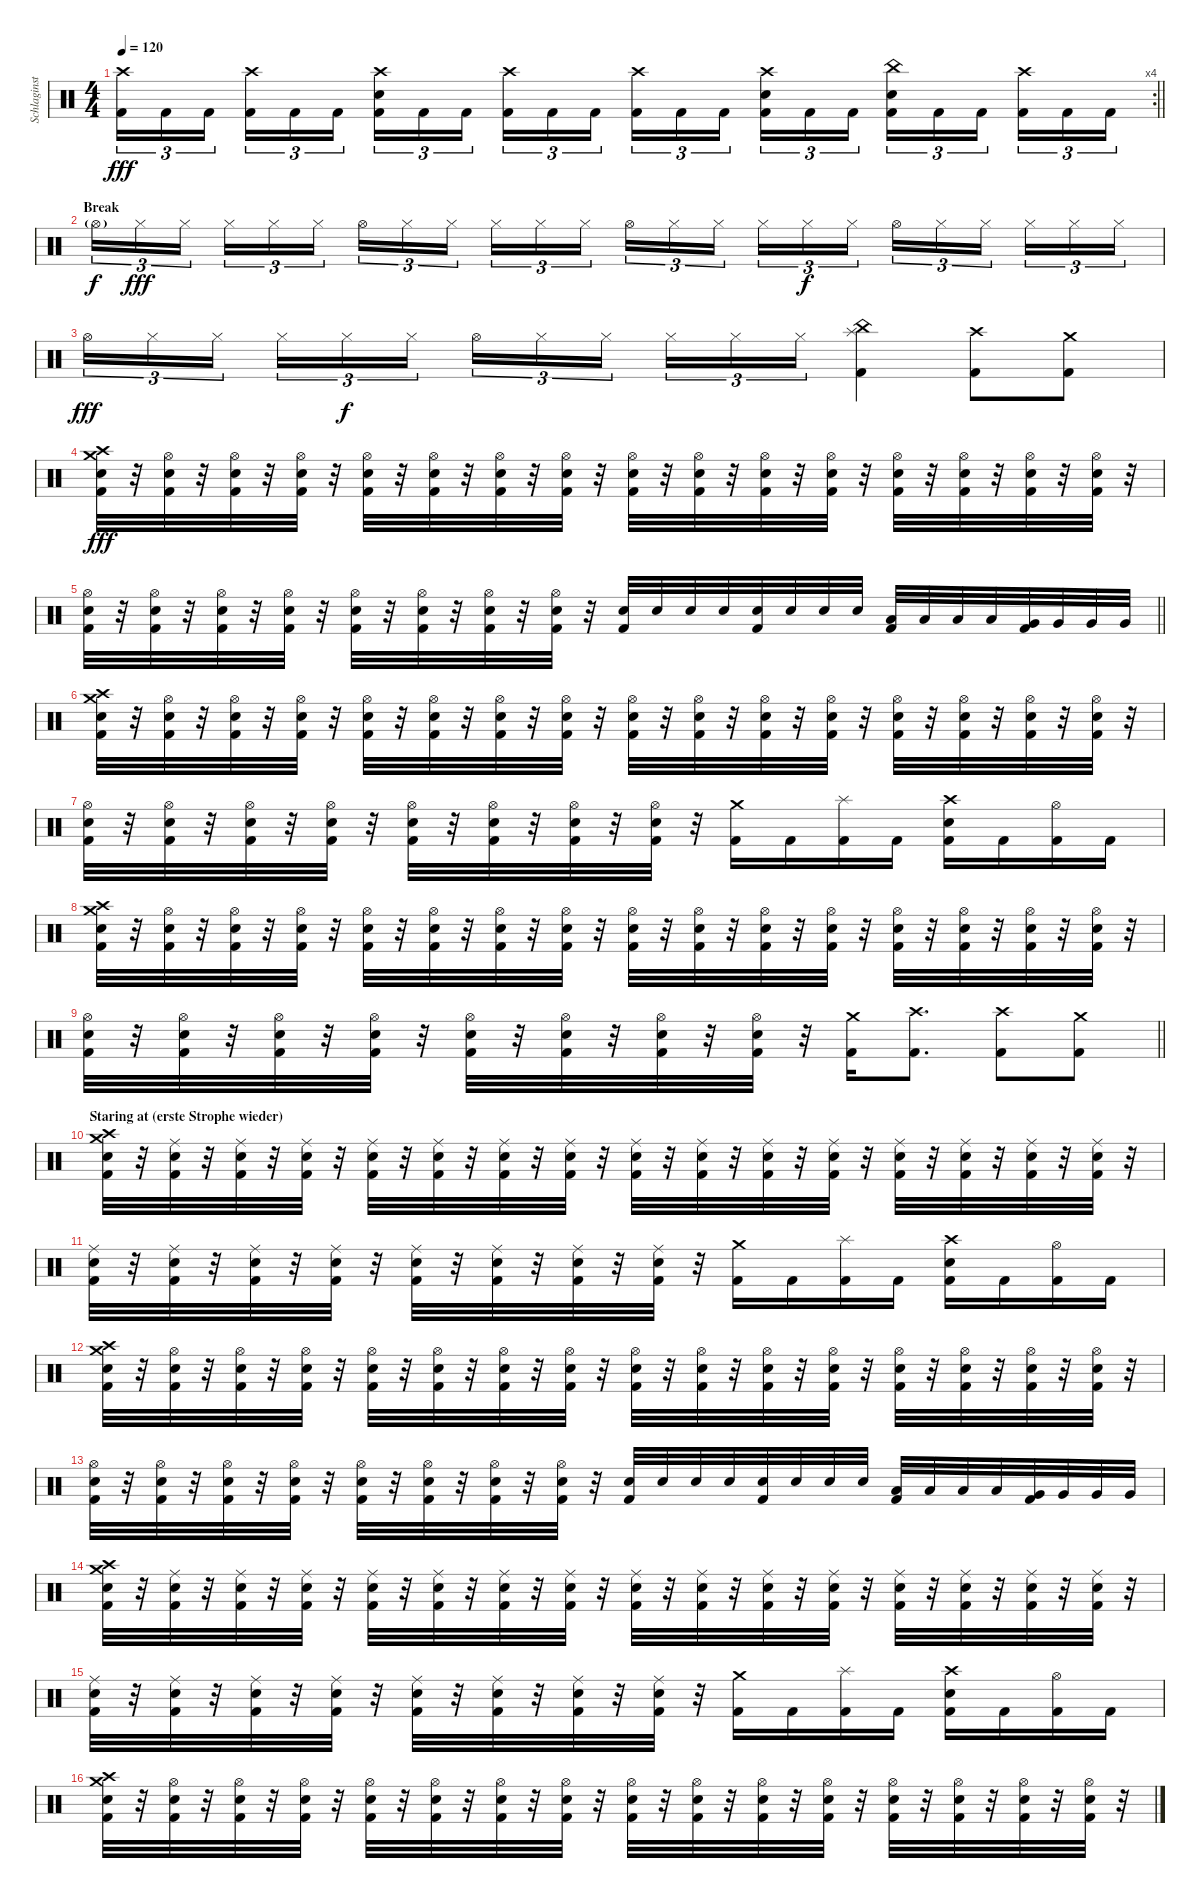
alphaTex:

\track ("Schlaginstrumente - Auswahl" "Schlaginst") {instrument percussion}
\staff {score}
\articulation defaults
\rc 4
\ts (4 4)
\tempo 120
\clef neutral
\barLineRight lightlight
\ks c
("Crash high (hit)" "Kick (hit) 2").16{tu (3 2) dy fff} "Kick (hit) 2".16{tu (3 2)} "Kick (hit) 2".16{tu (3 2) beam splitsecondary} ("Crash high (hit)" "Kick (hit) 2").16{tu (3 2)} "Kick (hit) 2".16{tu (3 2)} "Kick (hit) 2".16{tu (3 2)} ("Crash high (hit)" "Electric Snare (hit)" "Kick (hit) 2").16{tu (3 2)} "Kick (hit) 2".16{tu (3 2)} "Kick (hit) 2".16{tu (3 2) beam splitsecondary} ("Crash high (hit)" "Kick (hit) 2").16{tu (3 2)} "Kick (hit) 2".16{tu (3 2)} "Kick (hit) 2".16{tu (3 2)} ("Crash high (hit)" "Kick (hit) 2").16{tu (3 2)} "Kick (hit) 2".16{tu (3 2)} "Kick (hit) 2".16{tu (3 2) beam splitsecondary} ("Crash high (hit)" "Electric Snare (hit)" "Kick (hit) 2").16{tu (3 2)} "Kick (hit) 2".16{tu (3 2)} "Kick (hit) 2".16{tu (3 2)} ("China (hit)" "Electric Snare (hit)" "Kick (hit) 2").16{tu (3 2)} "Kick (hit) 2".16{tu (3 2)} "Kick (hit) 2".16{tu (3 2) beam splitsecondary} ("Crash high (hit)" "Kick (hit) 2").16{tu (3 2)} "Kick (hit) 2".16{tu (3 2)} "Kick (hit) 2".16{tu (3 2)} |
\section ("" "Break")
"Hi-Hat (open)"{g}.16{tu (3 2) dy f} "Hi-Hat (closed)".16{tu (3 2) dy fff} "Hi-Hat (closed)".16{tu (3 2) beam splitsecondary} "Hi-Hat (closed)".16{tu (3 2)} "Hi-Hat (closed)".16{tu (3 2)} "Hi-Hat (closed)".16{tu (3 2)} "Hi-Hat (open)".16{tu (3 2)} "Hi-Hat (closed)".16{tu (3 2)} "Hi-Hat (closed)".16{tu (3 2) beam splitsecondary} "Hi-Hat (closed)".16{tu (3 2)} "Hi-Hat (closed)".16{tu (3 2)} "Hi-Hat (closed)".16{tu (3 2)} "Hi-Hat (open)".16{tu (3 2)} "Hi-Hat (closed)".16{tu (3 2)} "Hi-Hat (closed)".16{tu (3 2) beam splitsecondary} "Hi-Hat (closed)".16{tu (3 2)} "Hi-Hat (closed)".16{tu (3 2) dy f} "Hi-Hat (closed)".16{tu (3 2)} "Hi-Hat (open)".16{tu (3 2)} "Hi-Hat (closed)".16{tu (3 2)} "Hi-Hat (closed)".16{tu (3 2) beam splitsecondary} "Hi-Hat (closed)".16{tu (3 2)} "Hi-Hat (closed)".16{tu (3 2)} "Hi-Hat (closed)".16{tu (3 2)} |
"Hi-Hat (open)".16{tu (3 2) dy fff} "Hi-Hat (closed)".16{tu (3 2)} "Hi-Hat (closed)".16{tu (3 2) beam splitsecondary} "Hi-Hat (closed)".16{tu (3 2)} "Hi-Hat (closed)".16{tu (3 2) dy f} "Hi-Hat (closed)".16{tu (3 2)} "Hi-Hat (open)".16{tu (3 2)} "Hi-Hat (closed)".16{tu (3 2)} "Hi-Hat (closed)".16{tu (3 2) beam splitsecondary} "Hi-Hat (closed)".16{tu (3 2)} "Hi-Hat (closed)".16{tu (3 2)} "Hi-Hat (closed)".16{tu (3 2)} ("Splash (hit)" "China (hit)" "Kick (hit) 2").4 ("Crash high (hit)" "Kick (hit) 2").8 ("Crash medium (hit)" "Kick (hit) 2").8 |
("Crash medium (hit)" "Crash high (hit)" "Electric Snare (hit)" "Kick (hit) 2").32{dy fff} r.32 ("Hi-Hat (open)" "Electric Snare (hit)" "Kick (hit) 2").32 r.32 ("Hi-Hat (open)" "Electric Snare (hit)" "Kick (hit) 2").32 r.32 ("Hi-Hat (open)" "Electric Snare (hit)" "Kick (hit) 2").32 r.32 ("Hi-Hat (open)" "Electric Snare (hit)" "Kick (hit) 2").32 r.32 ("Hi-Hat (open)" "Electric Snare (hit)" "Kick (hit) 2").32 r.32 ("Hi-Hat (open)" "Electric Snare (hit)" "Kick (hit) 2").32 r.32 ("Hi-Hat (open)" "Electric Snare (hit)" "Kick (hit) 2").32 r.32 ("Hi-Hat (open)" "Electric Snare (hit)" "Kick (hit) 2").32 r.32 ("Hi-Hat (open)" "Electric Snare (hit)" "Kick (hit) 2").32 r.32 ("Hi-Hat (open)" "Electric Snare (hit)" "Kick (hit) 2").32 r.32 ("Hi-Hat (open)" "Electric Snare (hit)" "Kick (hit) 2").32 r.32 ("Hi-Hat (open)" "Electric Snare (hit)" "Kick (hit) 2").32 r.32 ("Hi-Hat (open)" "Electric Snare (hit)" "Kick (hit) 2").32 r.32 ("Hi-Hat (open)" "Electric Snare (hit)" "Kick (hit) 2").32 r.32 ("Hi-Hat (open)" "Electric Snare (hit)" "Kick (hit) 2").32 r.32 |
\barLineRight lightlight
("Hi-Hat (open)" "Electric Snare (hit)" "Kick (hit) 2").32 r.32 ("Hi-Hat (open)" "Electric Snare (hit)" "Kick (hit) 2").32 r.32 ("Hi-Hat (open)" "Electric Snare (hit)" "Kick (hit) 2").32 r.32 ("Hi-Hat (open)" "Electric Snare (hit)" "Kick (hit) 2").32 r.32 ("Hi-Hat (open)" "Electric Snare (hit)" "Kick (hit) 2").32 r.32 ("Hi-Hat (open)" "Electric Snare (hit)" "Kick (hit) 2").32 r.32 ("Hi-Hat (open)" "Electric Snare (hit)" "Kick (hit) 2").32 r.32 ("Hi-Hat (open)" "Electric Snare (hit)" "Kick (hit) 2").32 r.32 ("Electric Snare (hit)" "Kick (hit) 2").32 "Electric Snare (hit)".32 "Electric Snare (hit)".32 "Electric Snare (hit)".32 ("Electric Snare (hit)" "Kick (hit) 2").32 "Electric Snare (hit)".32 "Electric Snare (hit)".32 "Electric Snare (hit)".32 ("Low Tom (hit)" "Kick (hit) 2").32 "Low Tom (hit)".32 "Low Tom (hit)".32 "Low Tom (hit)".32 ("Very Low Tom (hit)" "Kick (hit) 2").32 "Very Low Tom (hit)".32 "Very Low Tom (hit)".32 "Very Low Tom (hit)".32 |
("Crash medium (hit)" "Crash high (hit)" "Electric Snare (hit)" "Kick (hit) 2").32 r.32 ("Hi-Hat (open)" "Electric Snare (hit)" "Kick (hit) 2").32 r.32 ("Hi-Hat (open)" "Electric Snare (hit)" "Kick (hit) 2").32 r.32 ("Hi-Hat (open)" "Electric Snare (hit)" "Kick (hit) 2").32 r.32 ("Hi-Hat (open)" "Electric Snare (hit)" "Kick (hit) 2").32 r.32 ("Hi-Hat (open)" "Electric Snare (hit)" "Kick (hit) 2").32 r.32 ("Hi-Hat (open)" "Electric Snare (hit)" "Kick (hit) 2").32 r.32 ("Hi-Hat (open)" "Electric Snare (hit)" "Kick (hit) 2").32 r.32 ("Hi-Hat (open)" "Electric Snare (hit)" "Kick (hit) 2").32 r.32 ("Hi-Hat (open)" "Electric Snare (hit)" "Kick (hit) 2").32 r.32 ("Hi-Hat (open)" "Electric Snare (hit)" "Kick (hit) 2").32 r.32 ("Hi-Hat (open)" "Electric Snare (hit)" "Kick (hit) 2").32 r.32 ("Hi-Hat (open)" "Electric Snare (hit)" "Kick (hit) 2").32 r.32 ("Hi-Hat (open)" "Electric Snare (hit)" "Kick (hit) 2").32 r.32 ("Hi-Hat (open)" "Electric Snare (hit)" "Kick (hit) 2").32 r.32 ("Hi-Hat (open)" "Electric Snare (hit)" "Kick (hit) 2").32 r.32 |
("Hi-Hat (open)" "Electric Snare (hit)" "Kick (hit) 2").32 r.32 ("Hi-Hat (open)" "Electric Snare (hit)" "Kick (hit) 2").32 r.32 ("Hi-Hat (open)" "Electric Snare (hit)" "Kick (hit) 2").32 r.32 ("Hi-Hat (open)" "Electric Snare (hit)" "Kick (hit) 2").32 r.32 ("Hi-Hat (open)" "Electric Snare (hit)" "Kick (hit) 2").32 r.32 ("Hi-Hat (open)" "Electric Snare (hit)" "Kick (hit) 2").32 r.32 ("Hi-Hat (open)" "Electric Snare (hit)" "Kick (hit) 2").32 r.32 ("Hi-Hat (open)" "Electric Snare (hit)" "Kick (hit) 2").32 r.32 ("Crash medium (hit)" "Kick (hit) 2").16 "Kick (hit) 2".16 ("Splash (hit)" "Kick (hit) 2").16 "Kick (hit) 2".16 ("Crash high (hit)" "Electric Snare (hit)" "Kick (hit) 2").16 "Kick (hit) 2".16 ("Hi-Hat (open)" "Kick (hit) 2").16 "Kick (hit) 2".16 |
("Crash medium (hit)" "Crash high (hit)" "Electric Snare (hit)" "Kick (hit) 2").32 r.32 ("Hi-Hat (open)" "Electric Snare (hit)" "Kick (hit) 2").32 r.32 ("Hi-Hat (open)" "Electric Snare (hit)" "Kick (hit) 2").32 r.32 ("Hi-Hat (open)" "Electric Snare (hit)" "Kick (hit) 2").32 r.32 ("Hi-Hat (open)" "Electric Snare (hit)" "Kick (hit) 2").32 r.32 ("Hi-Hat (open)" "Electric Snare (hit)" "Kick (hit) 2").32 r.32 ("Hi-Hat (open)" "Electric Snare (hit)" "Kick (hit) 2").32 r.32 ("Hi-Hat (open)" "Electric Snare (hit)" "Kick (hit) 2").32 r.32 ("Hi-Hat (open)" "Electric Snare (hit)" "Kick (hit) 2").32 r.32 ("Hi-Hat (open)" "Electric Snare (hit)" "Kick (hit) 2").32 r.32 ("Hi-Hat (open)" "Electric Snare (hit)" "Kick (hit) 2").32 r.32 ("Hi-Hat (open)" "Electric Snare (hit)" "Kick (hit) 2").32 r.32 ("Hi-Hat (open)" "Electric Snare (hit)" "Kick (hit) 2").32 r.32 ("Hi-Hat (open)" "Electric Snare (hit)" "Kick (hit) 2").32 r.32 ("Hi-Hat (open)" "Electric Snare (hit)" "Kick (hit) 2").32 r.32 ("Hi-Hat (open)" "Electric Snare (hit)" "Kick (hit) 2").32 r.32 |
\barLineRight lightlight
("Hi-Hat (open)" "Electric Snare (hit)" "Kick (hit) 2").32 r.32 ("Hi-Hat (open)" "Electric Snare (hit)" "Kick (hit) 2").32 r.32 ("Hi-Hat (open)" "Electric Snare (hit)" "Kick (hit) 2").32 r.32 ("Hi-Hat (open)" "Electric Snare (hit)" "Kick (hit) 2").32 r.32 ("Hi-Hat (open)" "Electric Snare (hit)" "Kick (hit) 2").32 r.32 ("Hi-Hat (open)" "Electric Snare (hit)" "Kick (hit) 2").32 r.32 ("Hi-Hat (open)" "Electric Snare (hit)" "Kick (hit) 2").32 r.32 ("Hi-Hat (open)" "Electric Snare (hit)" "Kick (hit) 2").32 r.32 ("Crash medium (hit)" "Kick (hit) 2").16 ("Crash high (hit)" "Kick (hit) 2").8{d} ("Crash high (hit)" "Kick (hit) 2").8 ("Crash medium (hit)" "Kick (hit) 2").8 |
\section ("" "Staring at (erste Strophe wieder)")
("Crash medium (hit)" "Crash high (hit)" "Electric Snare (hit)" "Kick (hit) 2").32 r.32 ("Ride (middle)" "Electric Snare (hit)" "Kick (hit) 2").32 r.32 ("Ride (middle)" "Electric Snare (hit)" "Kick (hit) 2").32 r.32 ("Ride (middle)" "Electric Snare (hit)" "Kick (hit) 2").32 r.32 ("Ride (middle)" "Electric Snare (hit)" "Kick (hit) 2").32 r.32 ("Ride (middle)" "Electric Snare (hit)" "Kick (hit) 2").32 r.32 ("Ride (middle)" "Electric Snare (hit)" "Kick (hit) 2").32 r.32 ("Ride (middle)" "Electric Snare (hit)" "Kick (hit) 2").32 r.32 ("Ride (middle)" "Electric Snare (hit)" "Kick (hit) 2").32 r.32 ("Ride (middle)" "Electric Snare (hit)" "Kick (hit) 2").32 r.32 ("Ride (middle)" "Electric Snare (hit)" "Kick (hit) 2").32 r.32 ("Ride (middle)" "Electric Snare (hit)" "Kick (hit) 2").32 r.32 ("Ride (middle)" "Electric Snare (hit)" "Kick (hit) 2").32 r.32 ("Ride (middle)" "Electric Snare (hit)" "Kick (hit) 2").32 r.32 ("Ride (middle)" "Electric Snare (hit)" "Kick (hit) 2").32 r.32 ("Ride (middle)" "Electric Snare (hit)" "Kick (hit) 2").32 r.32 |
("Ride (middle)" "Electric Snare (hit)" "Kick (hit) 2").32 r.32 ("Ride (middle)" "Electric Snare (hit)" "Kick (hit) 2").32 r.32 ("Ride (middle)" "Electric Snare (hit)" "Kick (hit) 2").32 r.32 ("Ride (middle)" "Electric Snare (hit)" "Kick (hit) 2").32 r.32 ("Ride (middle)" "Electric Snare (hit)" "Kick (hit) 2").32 r.32 ("Ride (middle)" "Electric Snare (hit)" "Kick (hit) 2").32 r.32 ("Ride (middle)" "Electric Snare (hit)" "Kick (hit) 2").32 r.32 ("Ride (middle)" "Electric Snare (hit)" "Kick (hit) 2").32 r.32 ("Crash medium (hit)" "Kick (hit) 2").16 "Kick (hit) 2".16 ("Splash (hit)" "Kick (hit) 2").16 "Kick (hit) 2".16 ("Crash high (hit)" "Electric Snare (hit)" "Kick (hit) 2").16 "Kick (hit) 2".16 ("Hi-Hat (open)" "Kick (hit) 2").16 "Kick (hit) 2".16 |
("Crash medium (hit)" "Crash high (hit)" "Electric Snare (hit)" "Kick (hit) 2").32 r.32 ("Hi-Hat (open)" "Electric Snare (hit)" "Kick (hit) 2").32 r.32 ("Hi-Hat (open)" "Electric Snare (hit)" "Kick (hit) 2").32 r.32 ("Hi-Hat (open)" "Electric Snare (hit)" "Kick (hit) 2").32 r.32 ("Hi-Hat (open)" "Electric Snare (hit)" "Kick (hit) 2").32 r.32 ("Hi-Hat (open)" "Electric Snare (hit)" "Kick (hit) 2").32 r.32 ("Hi-Hat (open)" "Electric Snare (hit)" "Kick (hit) 2").32 r.32 ("Hi-Hat (open)" "Electric Snare (hit)" "Kick (hit) 2").32 r.32 ("Hi-Hat (open)" "Electric Snare (hit)" "Kick (hit) 2").32 r.32 ("Hi-Hat (open)" "Electric Snare (hit)" "Kick (hit) 2").32 r.32 ("Hi-Hat (open)" "Electric Snare (hit)" "Kick (hit) 2").32 r.32 ("Hi-Hat (open)" "Electric Snare (hit)" "Kick (hit) 2").32 r.32 ("Hi-Hat (open)" "Electric Snare (hit)" "Kick (hit) 2").32 r.32 ("Hi-Hat (open)" "Electric Snare (hit)" "Kick (hit) 2").32 r.32 ("Hi-Hat (open)" "Electric Snare (hit)" "Kick (hit) 2").32 r.32 ("Hi-Hat (open)" "Electric Snare (hit)" "Kick (hit) 2").32 r.32 |
("Hi-Hat (open)" "Electric Snare (hit)" "Kick (hit) 2").32 r.32 ("Hi-Hat (open)" "Electric Snare (hit)" "Kick (hit) 2").32 r.32 ("Hi-Hat (open)" "Electric Snare (hit)" "Kick (hit) 2").32 r.32 ("Hi-Hat (open)" "Electric Snare (hit)" "Kick (hit) 2").32 r.32 ("Hi-Hat (open)" "Electric Snare (hit)" "Kick (hit) 2").32 r.32 ("Hi-Hat (open)" "Electric Snare (hit)" "Kick (hit) 2").32 r.32 ("Hi-Hat (open)" "Electric Snare (hit)" "Kick (hit) 2").32 r.32 ("Hi-Hat (open)" "Electric Snare (hit)" "Kick (hit) 2").32 r.32 ("Electric Snare (hit)" "Kick (hit) 2").32 "Electric Snare (hit)".32 "Electric Snare (hit)".32 "Electric Snare (hit)".32 ("Electric Snare (hit)" "Kick (hit) 2").32 "Electric Snare (hit)".32 "Electric Snare (hit)".32 "Electric Snare (hit)".32 ("Low Tom (hit)" "Kick (hit) 2").32 "Low Tom (hit)".32 "Low Tom (hit)".32 "Low Tom (hit)".32 ("Very Low Tom (hit)" "Kick (hit) 2").32 "Very Low Tom (hit)".32 "Very Low Tom (hit)".32 "Very Low Tom (hit)".32 |
("Crash medium (hit)" "Crash high (hit)" "Electric Snare (hit)" "Kick (hit) 2").32 r.32 ("Ride (middle)" "Electric Snare (hit)" "Kick (hit) 2").32 r.32 ("Ride (middle)" "Electric Snare (hit)" "Kick (hit) 2").32 r.32 ("Ride (middle)" "Electric Snare (hit)" "Kick (hit) 2").32 r.32 ("Ride (middle)" "Electric Snare (hit)" "Kick (hit) 2").32 r.32 ("Ride (middle)" "Electric Snare (hit)" "Kick (hit) 2").32 r.32 ("Ride (middle)" "Electric Snare (hit)" "Kick (hit) 2").32 r.32 ("Ride (middle)" "Electric Snare (hit)" "Kick (hit) 2").32 r.32 ("Ride (middle)" "Electric Snare (hit)" "Kick (hit) 2").32 r.32 ("Ride (middle)" "Electric Snare (hit)" "Kick (hit) 2").32 r.32 ("Ride (middle)" "Electric Snare (hit)" "Kick (hit) 2").32 r.32 ("Ride (middle)" "Electric Snare (hit)" "Kick (hit) 2").32 r.32 ("Ride (middle)" "Electric Snare (hit)" "Kick (hit) 2").32 r.32 ("Ride (middle)" "Electric Snare (hit)" "Kick (hit) 2").32 r.32 ("Ride (middle)" "Electric Snare (hit)" "Kick (hit) 2").32 r.32 ("Ride (middle)" "Electric Snare (hit)" "Kick (hit) 2").32 r.32 |
("Ride (middle)" "Electric Snare (hit)" "Kick (hit) 2").32 r.32 ("Ride (middle)" "Electric Snare (hit)" "Kick (hit) 2").32 r.32 ("Ride (middle)" "Electric Snare (hit)" "Kick (hit) 2").32 r.32 ("Ride (middle)" "Electric Snare (hit)" "Kick (hit) 2").32 r.32 ("Ride (middle)" "Electric Snare (hit)" "Kick (hit) 2").32 r.32 ("Ride (middle)" "Electric Snare (hit)" "Kick (hit) 2").32 r.32 ("Ride (middle)" "Electric Snare (hit)" "Kick (hit) 2").32 r.32 ("Ride (middle)" "Electric Snare (hit)" "Kick (hit) 2").32 r.32 ("Crash medium (hit)" "Kick (hit) 2").16 "Kick (hit) 2".16 ("Splash (hit)" "Kick (hit) 2").16 "Kick (hit) 2".16 ("Crash high (hit)" "Electric Snare (hit)" "Kick (hit) 2").16 "Kick (hit) 2".16 ("Hi-Hat (open)" "Kick (hit) 2").16 "Kick (hit) 2".16 |
("Crash medium (hit)" "Crash high (hit)" "Electric Snare (hit)" "Kick (hit) 2").32 r.32 ("Hi-Hat (open)" "Electric Snare (hit)" "Kick (hit) 2").32 r.32 ("Hi-Hat (open)" "Electric Snare (hit)" "Kick (hit) 2").32 r.32 ("Hi-Hat (open)" "Electric Snare (hit)" "Kick (hit) 2").32 r.32 ("Hi-Hat (open)" "Electric Snare (hit)" "Kick (hit) 2").32 r.32 ("Hi-Hat (open)" "Electric Snare (hit)" "Kick (hit) 2").32 r.32 ("Hi-Hat (open)" "Electric Snare (hit)" "Kick (hit) 2").32 r.32 ("Hi-Hat (open)" "Electric Snare (hit)" "Kick (hit) 2").32 r.32 ("Hi-Hat (open)" "Electric Snare (hit)" "Kick (hit) 2").32 r.32 ("Hi-Hat (open)" "Electric Snare (hit)" "Kick (hit) 2").32 r.32 ("Hi-Hat (open)" "Electric Snare (hit)" "Kick (hit) 2").32 r.32 ("Hi-Hat (open)" "Electric Snare (hit)" "Kick (hit) 2").32 r.32 ("Hi-Hat (open)" "Electric Snare (hit)" "Kick (hit) 2").32 r.32 ("Hi-Hat (open)" "Electric Snare (hit)" "Kick (hit) 2").32 r.32 ("Hi-Hat (open)" "Electric Snare (hit)" "Kick (hit) 2").32 r.32 ("Hi-Hat (open)" "Electric Snare (hit)" "Kick (hit) 2").32 r.32
